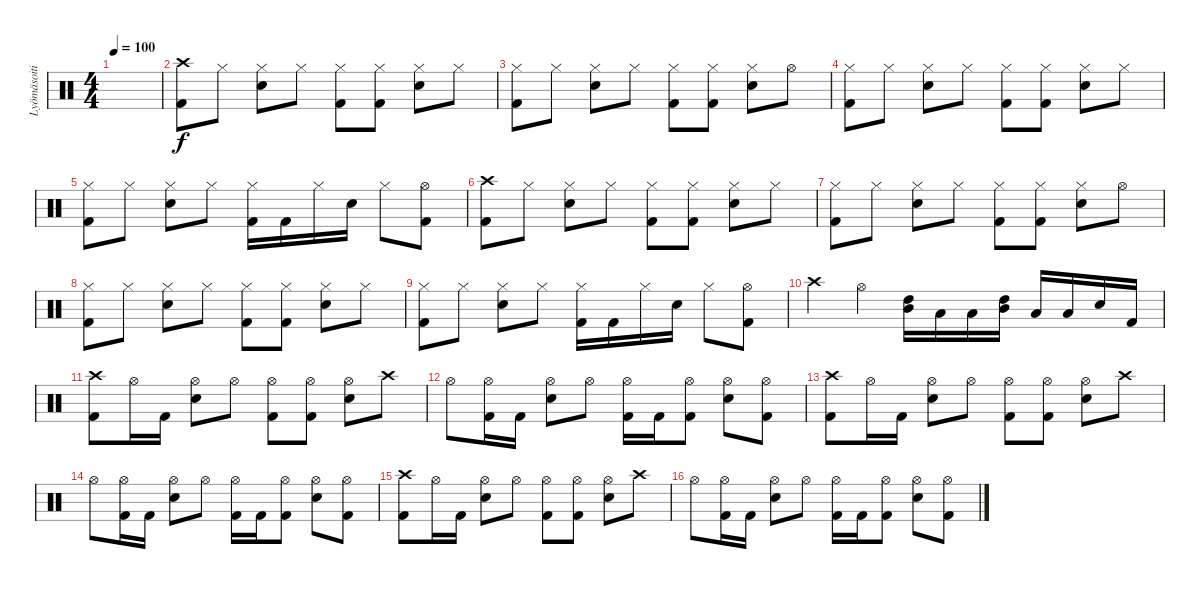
\track ("Lyömäsoitin" "Lyömäsoiti") {instrument percussion}
\staff {score}
\articulation defaults
\ts (4 4)
\tempo 100
\clef neutral
\ks c
|
("Crash high (hit)" "Kick (hit) 2").8 "Hi-Hat (closed)".8 ("Hi-Hat (closed)" "Snare (hit) 2").8 "Hi-Hat (closed)".8 ("Hi-Hat (closed)" "Kick (hit) 2").8 ("Hi-Hat (closed)" "Kick (hit) 2").8 ("Hi-Hat (closed)" "Snare (hit) 2").8 "Hi-Hat (closed)".8 |
("Hi-Hat (closed)" "Kick (hit) 2").8 "Hi-Hat (closed)".8 ("Hi-Hat (closed)" "Snare (hit) 2").8 "Hi-Hat (closed)".8 ("Hi-Hat (closed)" "Kick (hit) 2").8 ("Hi-Hat (closed)" "Kick (hit) 2").8 ("Hi-Hat (closed)" "Snare (hit) 2").8 "Hi-Hat (open)".8 |
("Hi-Hat (closed)" "Kick (hit) 2").8 "Hi-Hat (closed)".8 ("Hi-Hat (closed)" "Snare (hit) 2").8 "Hi-Hat (closed)".8 ("Hi-Hat (closed)" "Kick (hit) 2").8 ("Hi-Hat (closed)" "Kick (hit) 2").8 ("Hi-Hat (closed)" "Snare (hit) 2").8 "Hi-Hat (closed)".8 |
("Hi-Hat (closed)" "Kick (hit) 2").8 "Hi-Hat (closed)".8 ("Hi-Hat (closed)" "Snare (hit) 2").8 "Hi-Hat (closed)".8 ("Hi-Hat (closed)" "Kick (hit) 2").16 "Kick (hit) 2".16 "Hi-Hat (closed)".16 "Snare (hit) 2".16 "Hi-Hat (closed)".8 ("Hi-Hat (open)" "Kick (hit) 2").8 |
("Crash high (hit)" "Kick (hit) 2").8 "Hi-Hat (closed)".8 ("Hi-Hat (closed)" "Snare (hit) 2").8 "Hi-Hat (closed)".8 ("Hi-Hat (closed)" "Kick (hit) 2").8 ("Hi-Hat (closed)" "Kick (hit) 2").8 ("Hi-Hat (closed)" "Snare (hit) 2").8 "Hi-Hat (closed)".8 |
("Hi-Hat (closed)" "Kick (hit) 2").8 "Hi-Hat (closed)".8 ("Hi-Hat (closed)" "Snare (hit) 2").8 "Hi-Hat (closed)".8 ("Hi-Hat (closed)" "Kick (hit) 2").8 ("Hi-Hat (closed)" "Kick (hit) 2").8 ("Hi-Hat (closed)" "Snare (hit) 2").8 "Hi-Hat (open)".8 |
("Hi-Hat (closed)" "Kick (hit) 2").8 "Hi-Hat (closed)".8 ("Hi-Hat (closed)" "Snare (hit) 2").8 "Hi-Hat (closed)".8 ("Hi-Hat (closed)" "Kick (hit) 2").8 ("Hi-Hat (closed)" "Kick (hit) 2").8 ("Hi-Hat (closed)" "Snare (hit) 2").8 "Hi-Hat (closed)".8 |
("Hi-Hat (closed)" "Kick (hit) 2").8 "Hi-Hat (closed)".8 ("Hi-Hat (closed)" "Snare (hit) 2").8 "Hi-Hat (closed)".8 ("Hi-Hat (closed)" "Kick (hit) 2").16 "Kick (hit) 2".16 "Hi-Hat (closed)".16 "Snare (hit) 2".16 "Hi-Hat (closed)".8 ("Hi-Hat (open)" "Kick (hit) 2").8 |
"Crash high (hit)".4 "Hi-Hat (open)".4 ("High Tom (hit)" "Mid Tom (hit)").16 "Low Tom (hit)".16 "Low Tom (hit)".16 ("High Tom (hit)" "Mid Tom (hit)").16 "Low Tom (hit)".16 "Low Tom (hit)".16 "Snare (hit) 2".16 "Kick (hit) 2".16 |
("Crash high (hit)" "Kick (hit) 2").8 "Hi-Hat (open)".16 "Kick (hit) 2".16 ("Hi-Hat (open)" "Snare (hit) 2").8 "Hi-Hat (open)".8 ("Hi-Hat (open)" "Kick (hit) 2").8 ("Hi-Hat (open)" "Kick (hit) 2").8 ("Hi-Hat (open)" "Snare (hit) 2").8 "Crash high (hit)".8 |
"Hi-Hat (open)".8 ("Hi-Hat (open)" "Kick (hit) 2").16 "Kick (hit) 2".16 ("Hi-Hat (open)" "Snare (hit) 2").8 "Hi-Hat (open)".8 ("Hi-Hat (open)" "Kick (hit) 2").16 "Kick (hit) 2".16 ("Hi-Hat (open)" "Kick (hit) 2").8 ("Hi-Hat (open)" "Snare (hit) 2").8 ("Hi-Hat (open)" "Kick (hit) 2").8 |
("Crash high (hit)" "Kick (hit) 2").8 "Hi-Hat (open)".16 "Kick (hit) 2".16 ("Hi-Hat (open)" "Snare (hit) 2").8 "Hi-Hat (open)".8 ("Hi-Hat (open)" "Kick (hit) 2").8 ("Hi-Hat (open)" "Kick (hit) 2").8 ("Hi-Hat (open)" "Snare (hit) 2").8 "Crash high (hit)".8 |
"Hi-Hat (open)".8 ("Hi-Hat (open)" "Kick (hit) 2").16 "Kick (hit) 2".16 ("Hi-Hat (open)" "Snare (hit) 2").8 "Hi-Hat (open)".8 ("Hi-Hat (open)" "Kick (hit) 2").16 "Kick (hit) 2".16 ("Hi-Hat (open)" "Kick (hit) 2").8 ("Hi-Hat (open)" "Snare (hit) 2").8 ("Hi-Hat (open)" "Kick (hit) 2").8 |
("Crash high (hit)" "Kick (hit) 2").8 "Hi-Hat (open)".16 "Kick (hit) 2".16 ("Hi-Hat (open)" "Snare (hit) 2").8 "Hi-Hat (open)".8 ("Hi-Hat (open)" "Kick (hit) 2").8 ("Hi-Hat (open)" "Kick (hit) 2").8 ("Hi-Hat (open)" "Snare (hit) 2").8 "Crash high (hit)".8 |
"Hi-Hat (open)".8 ("Hi-Hat (open)" "Kick (hit) 2").16 "Kick (hit) 2".16 ("Hi-Hat (open)" "Snare (hit) 2").8 "Hi-Hat (open)".8 ("Hi-Hat (open)" "Kick (hit) 2").16 "Kick (hit) 2".16 ("Hi-Hat (open)" "Kick (hit) 2").8 ("Hi-Hat (open)" "Snare (hit) 2").8 ("Hi-Hat (open)" "Kick (hit) 2").8
